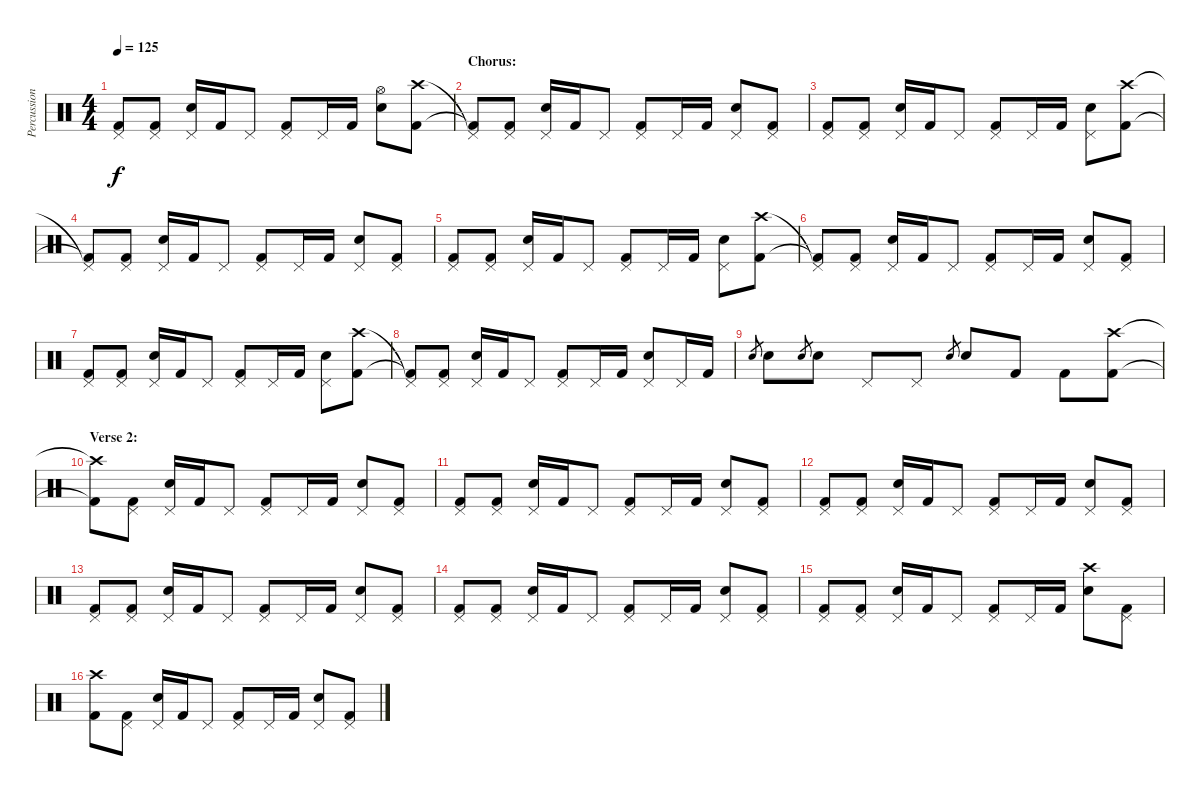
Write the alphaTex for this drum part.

\track ("Percussion" "Percussion") {instrument percussion}
\staff {score}
\articulation defaults
\ts (4 4)
\tempo 125
\clef neutral
\ks c
("Pedal Hi-Hat (hit)" "Kick (hit) 2").8{dy f} ("Pedal Hi-Hat (hit)" "Kick (hit) 2").8 ("Pedal Hi-Hat (hit)" "Electric Snare (hit)").16 "Kick (hit) 2".16 "Pedal Hi-Hat (hit)".8 ("Pedal Hi-Hat (hit)" "Kick (hit) 2").8 "Pedal Hi-Hat (hit)".16 "Kick (hit) 2".16 ("Hi-Hat (open)" "Electric Snare (hit)").8 ("Crash high (hit)" "Kick (hit) 2").8 |
\section ("" "Chorus:")
("Pedal Hi-Hat (hit)"{t} "Kick (hit) 2"{t}).8 ("Pedal Hi-Hat (hit)" "Kick (hit) 2").8 ("Pedal Hi-Hat (hit)" "Electric Snare (hit)").16 "Kick (hit) 2".16 "Pedal Hi-Hat (hit)".8 ("Pedal Hi-Hat (hit)" "Kick (hit) 2").8 "Pedal Hi-Hat (hit)".16 "Kick (hit) 2".16 ("Pedal Hi-Hat (hit)" "Electric Snare (hit)").8 ("Pedal Hi-Hat (hit)" "Kick (hit) 2").8 |
("Pedal Hi-Hat (hit)" "Kick (hit) 2").8 ("Pedal Hi-Hat (hit)" "Kick (hit) 2").8 ("Pedal Hi-Hat (hit)" "Electric Snare (hit)").16 "Kick (hit) 2".16 "Pedal Hi-Hat (hit)".8 ("Pedal Hi-Hat (hit)" "Kick (hit) 2").8 "Pedal Hi-Hat (hit)".16 "Kick (hit) 2".16 ("Pedal Hi-Hat (hit)" "Electric Snare (hit)").8 ("Crash high (hit)" "Kick (hit) 2").8 |
("Pedal Hi-Hat (hit)"{t} "Kick (hit) 2"{t}).8 ("Pedal Hi-Hat (hit)" "Kick (hit) 2").8 ("Pedal Hi-Hat (hit)" "Electric Snare (hit)").16 "Kick (hit) 2".16 "Pedal Hi-Hat (hit)".8 ("Pedal Hi-Hat (hit)" "Kick (hit) 2").8 "Pedal Hi-Hat (hit)".16 "Kick (hit) 2".16 ("Pedal Hi-Hat (hit)" "Electric Snare (hit)").8 ("Pedal Hi-Hat (hit)" "Kick (hit) 2").8 |
("Pedal Hi-Hat (hit)" "Kick (hit) 2").8 ("Pedal Hi-Hat (hit)" "Kick (hit) 2").8 ("Pedal Hi-Hat (hit)" "Electric Snare (hit)").16 "Kick (hit) 2".16 "Pedal Hi-Hat (hit)".8 ("Pedal Hi-Hat (hit)" "Kick (hit) 2").8 "Pedal Hi-Hat (hit)".16 "Kick (hit) 2".16 ("Pedal Hi-Hat (hit)" "Electric Snare (hit)").8 ("Crash high (hit)" "Kick (hit) 2").8 |
("Pedal Hi-Hat (hit)"{t} "Kick (hit) 2"{t}).8 ("Pedal Hi-Hat (hit)" "Kick (hit) 2").8 ("Pedal Hi-Hat (hit)" "Electric Snare (hit)").16 "Kick (hit) 2".16 "Pedal Hi-Hat (hit)".8 ("Pedal Hi-Hat (hit)" "Kick (hit) 2").8 "Pedal Hi-Hat (hit)".16 "Kick (hit) 2".16 ("Pedal Hi-Hat (hit)" "Electric Snare (hit)").8 ("Pedal Hi-Hat (hit)" "Kick (hit) 2").8 |
("Pedal Hi-Hat (hit)" "Kick (hit) 2").8 ("Pedal Hi-Hat (hit)" "Kick (hit) 2").8 ("Pedal Hi-Hat (hit)" "Electric Snare (hit)").16 "Kick (hit) 2".16 "Pedal Hi-Hat (hit)".8 ("Pedal Hi-Hat (hit)" "Kick (hit) 2").8 "Pedal Hi-Hat (hit)".16 "Kick (hit) 2".16 ("Pedal Hi-Hat (hit)" "Electric Snare (hit)").8 ("Crash high (hit)" "Kick (hit) 2").8 |
("Pedal Hi-Hat (hit)"{t} "Kick (hit) 2"{t}).8 ("Pedal Hi-Hat (hit)" "Kick (hit) 2").8 ("Pedal Hi-Hat (hit)" "Electric Snare (hit)").16 "Kick (hit) 2".16 "Pedal Hi-Hat (hit)".8 ("Pedal Hi-Hat (hit)" "Kick (hit) 2").8 "Pedal Hi-Hat (hit)".16 "Kick (hit) 2".16 ("Pedal Hi-Hat (hit)" "Electric Snare (hit)").8 "Pedal Hi-Hat (hit)".16 "Kick (hit) 2".16 |
"Electric Snare (hit)".8{gr} "Electric Snare (hit)".8 "Electric Snare (hit)".8{gr} "Electric Snare (hit)".8 "Pedal Hi-Hat (hit)".8 "Pedal Hi-Hat (hit)".8 "Electric Snare (hit)".8{gr} "Electric Snare (hit)".8 "Kick (hit) 2".8 "Kick (hit) 2".8 ("Crash high (hit)" "Kick (hit) 2").8 |
\section ("" "Verse 2:")
("Crash high (hit)"{t} "Kick (hit) 2"{t}).8 ("Pedal Hi-Hat (hit)" "Kick (hit) 2").8 ("Pedal Hi-Hat (hit)" "Electric Snare (hit)").16 "Kick (hit) 2".16 "Pedal Hi-Hat (hit)".8 ("Pedal Hi-Hat (hit)" "Kick (hit) 2").8 "Pedal Hi-Hat (hit)".16 "Kick (hit) 2".16 ("Pedal Hi-Hat (hit)" "Electric Snare (hit)").8 ("Pedal Hi-Hat (hit)" "Kick (hit) 2").8 |
("Pedal Hi-Hat (hit)" "Kick (hit) 2").8 ("Pedal Hi-Hat (hit)" "Kick (hit) 2").8 ("Pedal Hi-Hat (hit)" "Electric Snare (hit)").16 "Kick (hit) 2".16 "Pedal Hi-Hat (hit)".8 ("Pedal Hi-Hat (hit)" "Kick (hit) 2").8 "Pedal Hi-Hat (hit)".16 "Kick (hit) 2".16 ("Pedal Hi-Hat (hit)" "Electric Snare (hit)").8 ("Pedal Hi-Hat (hit)" "Kick (hit) 2").8 |
("Pedal Hi-Hat (hit)" "Kick (hit) 2").8 ("Pedal Hi-Hat (hit)" "Kick (hit) 2").8 ("Pedal Hi-Hat (hit)" "Electric Snare (hit)").16 "Kick (hit) 2".16 "Pedal Hi-Hat (hit)".8 ("Pedal Hi-Hat (hit)" "Kick (hit) 2").8 "Pedal Hi-Hat (hit)".16 "Kick (hit) 2".16 ("Pedal Hi-Hat (hit)" "Electric Snare (hit)").8 ("Pedal Hi-Hat (hit)" "Kick (hit) 2").8 |
("Pedal Hi-Hat (hit)" "Kick (hit) 2").8 ("Pedal Hi-Hat (hit)" "Kick (hit) 2").8 ("Pedal Hi-Hat (hit)" "Electric Snare (hit)").16 "Kick (hit) 2".16 "Pedal Hi-Hat (hit)".8 ("Pedal Hi-Hat (hit)" "Kick (hit) 2").8 "Pedal Hi-Hat (hit)".16 "Kick (hit) 2".16 ("Pedal Hi-Hat (hit)" "Electric Snare (hit)").8 ("Pedal Hi-Hat (hit)" "Kick (hit) 2").8 |
("Pedal Hi-Hat (hit)" "Kick (hit) 2").8 ("Pedal Hi-Hat (hit)" "Kick (hit) 2").8 ("Pedal Hi-Hat (hit)" "Electric Snare (hit)").16 "Kick (hit) 2".16 "Pedal Hi-Hat (hit)".8 ("Pedal Hi-Hat (hit)" "Kick (hit) 2").8 "Pedal Hi-Hat (hit)".16 "Kick (hit) 2".16 ("Pedal Hi-Hat (hit)" "Electric Snare (hit)").8 ("Pedal Hi-Hat (hit)" "Kick (hit) 2").8 |
("Pedal Hi-Hat (hit)" "Kick (hit) 2").8 ("Pedal Hi-Hat (hit)" "Kick (hit) 2").8 ("Pedal Hi-Hat (hit)" "Electric Snare (hit)").16 "Kick (hit) 2".16 "Pedal Hi-Hat (hit)".8 ("Pedal Hi-Hat (hit)" "Kick (hit) 2").8 "Pedal Hi-Hat (hit)".16 "Kick (hit) 2".16 ("Crash high (hit)" "Electric Snare (hit)").8 ("Pedal Hi-Hat (hit)" "Kick (hit) 2").8 |
("Crash high (hit)" "Kick (hit) 2").8 ("Pedal Hi-Hat (hit)" "Kick (hit) 2").8 ("Pedal Hi-Hat (hit)" "Electric Snare (hit)").16 "Kick (hit) 2".16 "Pedal Hi-Hat (hit)".8 ("Pedal Hi-Hat (hit)" "Kick (hit) 2").8 "Pedal Hi-Hat (hit)".16 "Kick (hit) 2".16 ("Pedal Hi-Hat (hit)" "Electric Snare (hit)").8 ("Pedal Hi-Hat (hit)" "Kick (hit) 2").8
